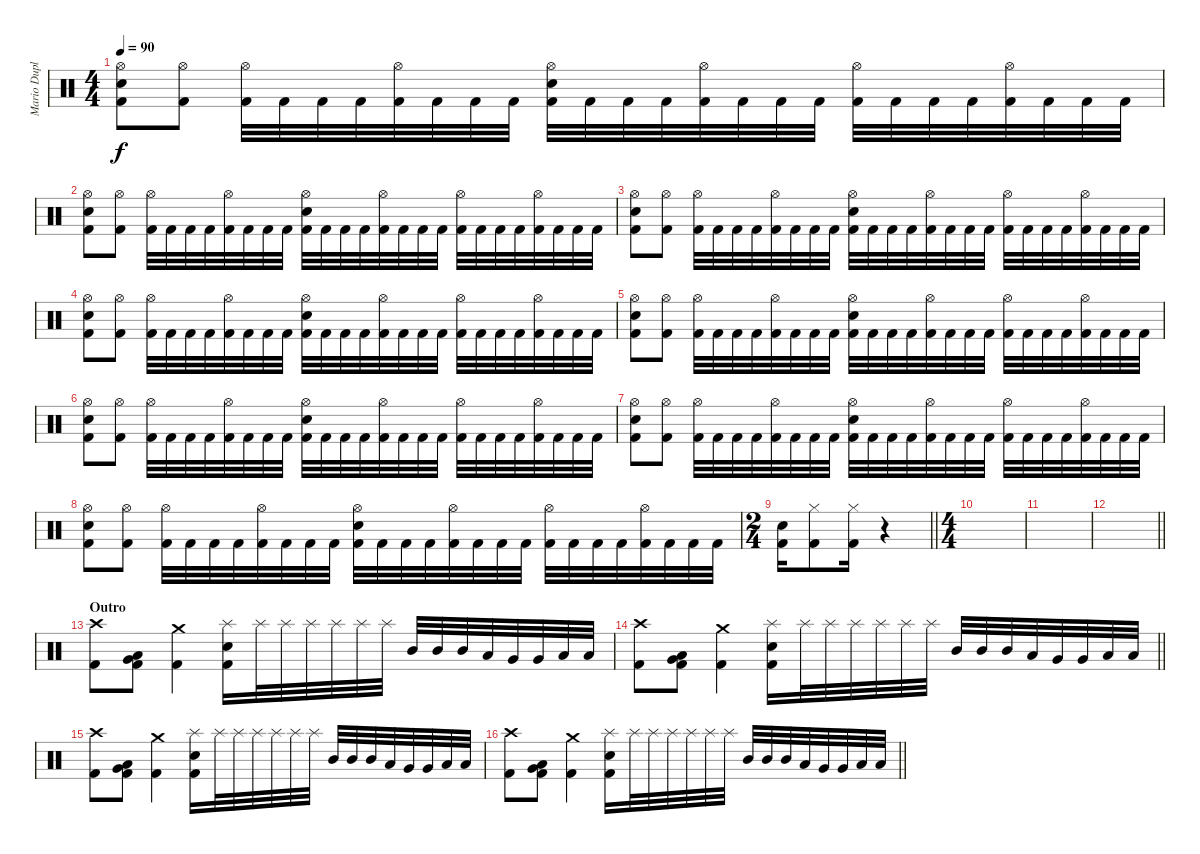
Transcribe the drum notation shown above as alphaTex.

\track ("Mario Duplantier" "Mario Dupl") {instrument percussion}
\staff {score}
\articulation defaults
\ts (4 4)
\tempo 90
\clef neutral
\ks c
("Hi-Hat (open)" "Electric Snare (hit)" "Kick (hit) 2").8{dy f} ("Hi-Hat (open)" "Kick (hit) 2").8 ("Hi-Hat (open)" "Kick (hit) 2").32 "Kick (hit) 2".32 "Kick (hit) 2".32 "Kick (hit) 2".32 ("Hi-Hat (open)" "Kick (hit) 2").32 "Kick (hit) 2".32 "Kick (hit) 2".32 "Kick (hit) 2".32 ("Hi-Hat (open)" "Electric Snare (hit)" "Kick (hit) 2").32 "Kick (hit) 2".32 "Kick (hit) 2".32 "Kick (hit) 2".32 ("Hi-Hat (open)" "Kick (hit) 2").32 "Kick (hit) 2".32 "Kick (hit) 2".32 "Kick (hit) 2".32 ("Hi-Hat (open)" "Kick (hit) 2").32 "Kick (hit) 2".32 "Kick (hit) 2".32 "Kick (hit) 2".32 ("Hi-Hat (open)" "Kick (hit) 2").32 "Kick (hit) 2".32 "Kick (hit) 2".32 "Kick (hit) 2".32 |
("Hi-Hat (open)" "Electric Snare (hit)" "Kick (hit) 2").8 ("Hi-Hat (open)" "Kick (hit) 2").8 ("Hi-Hat (open)" "Kick (hit) 2").32 "Kick (hit) 2".32 "Kick (hit) 2".32 "Kick (hit) 2".32 ("Hi-Hat (open)" "Kick (hit) 2").32 "Kick (hit) 2".32 "Kick (hit) 2".32 "Kick (hit) 2".32 ("Hi-Hat (open)" "Electric Snare (hit)" "Kick (hit) 2").32 "Kick (hit) 2".32 "Kick (hit) 2".32 "Kick (hit) 2".32 ("Hi-Hat (open)" "Kick (hit) 2").32 "Kick (hit) 2".32 "Kick (hit) 2".32 "Kick (hit) 2".32 ("Hi-Hat (open)" "Kick (hit) 2").32 "Kick (hit) 2".32 "Kick (hit) 2".32 "Kick (hit) 2".32 ("Hi-Hat (open)" "Kick (hit) 2").32 "Kick (hit) 2".32 "Kick (hit) 2".32 "Kick (hit) 2".32 |
("Hi-Hat (open)" "Electric Snare (hit)" "Kick (hit) 2").8 ("Hi-Hat (open)" "Kick (hit) 2").8 ("Hi-Hat (open)" "Kick (hit) 2").32 "Kick (hit) 2".32 "Kick (hit) 2".32 "Kick (hit) 2".32 ("Hi-Hat (open)" "Kick (hit) 2").32 "Kick (hit) 2".32 "Kick (hit) 2".32 "Kick (hit) 2".32 ("Hi-Hat (open)" "Electric Snare (hit)" "Kick (hit) 2").32 "Kick (hit) 2".32 "Kick (hit) 2".32 "Kick (hit) 2".32 ("Hi-Hat (open)" "Kick (hit) 2").32 "Kick (hit) 2".32 "Kick (hit) 2".32 "Kick (hit) 2".32 ("Hi-Hat (open)" "Kick (hit) 2").32 "Kick (hit) 2".32 "Kick (hit) 2".32 "Kick (hit) 2".32 ("Hi-Hat (open)" "Kick (hit) 2").32 "Kick (hit) 2".32 "Kick (hit) 2".32 "Kick (hit) 2".32 |
("Hi-Hat (open)" "Electric Snare (hit)" "Kick (hit) 2").8 ("Hi-Hat (open)" "Kick (hit) 2").8 ("Hi-Hat (open)" "Kick (hit) 2").32 "Kick (hit) 2".32 "Kick (hit) 2".32 "Kick (hit) 2".32 ("Hi-Hat (open)" "Kick (hit) 2").32 "Kick (hit) 2".32 "Kick (hit) 2".32 "Kick (hit) 2".32 ("Hi-Hat (open)" "Electric Snare (hit)" "Kick (hit) 2").32 "Kick (hit) 2".32 "Kick (hit) 2".32 "Kick (hit) 2".32 ("Hi-Hat (open)" "Kick (hit) 2").32 "Kick (hit) 2".32 "Kick (hit) 2".32 "Kick (hit) 2".32 ("Hi-Hat (open)" "Kick (hit) 2").32 "Kick (hit) 2".32 "Kick (hit) 2".32 "Kick (hit) 2".32 ("Hi-Hat (open)" "Kick (hit) 2").32 "Kick (hit) 2".32 "Kick (hit) 2".32 "Kick (hit) 2".32 |
("Hi-Hat (open)" "Electric Snare (hit)" "Kick (hit) 2").8 ("Hi-Hat (open)" "Kick (hit) 2").8 ("Hi-Hat (open)" "Kick (hit) 2").32 "Kick (hit) 2".32 "Kick (hit) 2".32 "Kick (hit) 2".32 ("Hi-Hat (open)" "Kick (hit) 2").32 "Kick (hit) 2".32 "Kick (hit) 2".32 "Kick (hit) 2".32 ("Hi-Hat (open)" "Electric Snare (hit)" "Kick (hit) 2").32 "Kick (hit) 2".32 "Kick (hit) 2".32 "Kick (hit) 2".32 ("Hi-Hat (open)" "Kick (hit) 2").32 "Kick (hit) 2".32 "Kick (hit) 2".32 "Kick (hit) 2".32 ("Hi-Hat (open)" "Kick (hit) 2").32 "Kick (hit) 2".32 "Kick (hit) 2".32 "Kick (hit) 2".32 ("Hi-Hat (open)" "Kick (hit) 2").32 "Kick (hit) 2".32 "Kick (hit) 2".32 "Kick (hit) 2".32 |
("Hi-Hat (open)" "Electric Snare (hit)" "Kick (hit) 2").8 ("Hi-Hat (open)" "Kick (hit) 2").8 ("Hi-Hat (open)" "Kick (hit) 2").32 "Kick (hit) 2".32 "Kick (hit) 2".32 "Kick (hit) 2".32 ("Hi-Hat (open)" "Kick (hit) 2").32 "Kick (hit) 2".32 "Kick (hit) 2".32 "Kick (hit) 2".32 ("Hi-Hat (open)" "Electric Snare (hit)" "Kick (hit) 2").32 "Kick (hit) 2".32 "Kick (hit) 2".32 "Kick (hit) 2".32 ("Hi-Hat (open)" "Kick (hit) 2").32 "Kick (hit) 2".32 "Kick (hit) 2".32 "Kick (hit) 2".32 ("Hi-Hat (open)" "Kick (hit) 2").32 "Kick (hit) 2".32 "Kick (hit) 2".32 "Kick (hit) 2".32 ("Hi-Hat (open)" "Kick (hit) 2").32 "Kick (hit) 2".32 "Kick (hit) 2".32 "Kick (hit) 2".32 |
("Hi-Hat (open)" "Electric Snare (hit)" "Kick (hit) 2").8 ("Hi-Hat (open)" "Kick (hit) 2").8 ("Hi-Hat (open)" "Kick (hit) 2").32 "Kick (hit) 2".32 "Kick (hit) 2".32 "Kick (hit) 2".32 ("Hi-Hat (open)" "Kick (hit) 2").32 "Kick (hit) 2".32 "Kick (hit) 2".32 "Kick (hit) 2".32 ("Hi-Hat (open)" "Electric Snare (hit)" "Kick (hit) 2").32 "Kick (hit) 2".32 "Kick (hit) 2".32 "Kick (hit) 2".32 ("Hi-Hat (open)" "Kick (hit) 2").32 "Kick (hit) 2".32 "Kick (hit) 2".32 "Kick (hit) 2".32 ("Hi-Hat (open)" "Kick (hit) 2").32 "Kick (hit) 2".32 "Kick (hit) 2".32 "Kick (hit) 2".32 ("Hi-Hat (open)" "Kick (hit) 2").32 "Kick (hit) 2".32 "Kick (hit) 2".32 "Kick (hit) 2".32 |
("Hi-Hat (open)" "Electric Snare (hit)" "Kick (hit) 2").8 ("Hi-Hat (open)" "Kick (hit) 2").8 ("Hi-Hat (open)" "Kick (hit) 2").32 "Kick (hit) 2".32 "Kick (hit) 2".32 "Kick (hit) 2".32 ("Hi-Hat (open)" "Kick (hit) 2").32 "Kick (hit) 2".32 "Kick (hit) 2".32 "Kick (hit) 2".32 ("Hi-Hat (open)" "Electric Snare (hit)" "Kick (hit) 2").32 "Kick (hit) 2".32 "Kick (hit) 2".32 "Kick (hit) 2".32 ("Hi-Hat (open)" "Kick (hit) 2").32 "Kick (hit) 2".32 "Kick (hit) 2".32 "Kick (hit) 2".32 ("Hi-Hat (open)" "Kick (hit) 2").32 "Kick (hit) 2".32 "Kick (hit) 2".32 "Kick (hit) 2".32 ("Hi-Hat (open)" "Kick (hit) 2").32 "Kick (hit) 2".32 "Kick (hit) 2".32 "Kick (hit) 2".32 |
\ts (2 4)
\barLineRight lightlight
("Electric Snare (hit)" "Kick (hit) 2").16 ("Hi-Hat (closed)" "Kick (hit) 2").8 ("Hi-Hat (closed)" "Kick (hit) 2").16 r.4 |
\ts (4 4)
\section ("" "")
|
|
\barLineRight lightlight
|
\section ("" "Outro")
("Crash high (hit)" "Kick (hit) 2").8 ("Very Low Tom (hit)" "Low Floor Tom (hit)" "Kick (hit) 2").8 ("Crash medium (hit)" "Kick (hit) 2").4 ("Splash (hit)" "Electric Snare (hit)" "Kick (hit) 2").16 "Splash (hit)".32 "Splash (hit)".32 "Splash (hit)".32 "Splash (hit)".32 "Splash (hit)".32 "Splash (hit)".32 "Mid Tom (hit)".32 "Mid Tom (hit)".32 "Mid Tom (hit)".32 "Low Tom (hit)".32 "Very Low Tom (hit)".32 "Very Low Tom (hit)".32 "Low Floor Tom (hit)".32 "Low Floor Tom (hit)".32 |
\barLineRight lightlight
("Crash high (hit)" "Kick (hit) 2").8 ("Very Low Tom (hit)" "Low Floor Tom (hit)" "Kick (hit) 2").8 ("Crash medium (hit)" "Kick (hit) 2").4 ("Splash (hit)" "Electric Snare (hit)" "Kick (hit) 2").16 "Splash (hit)".32 "Splash (hit)".32 "Splash (hit)".32 "Splash (hit)".32 "Splash (hit)".32 "Splash (hit)".32 "Mid Tom (hit)".32 "Mid Tom (hit)".32 "Mid Tom (hit)".32 "Low Tom (hit)".32 "Very Low Tom (hit)".32 "Very Low Tom (hit)".32 "Low Floor Tom (hit)".32 "Low Floor Tom (hit)".32 |
("Crash high (hit)" "Kick (hit) 2").8 ("Very Low Tom (hit)" "Low Floor Tom (hit)" "Kick (hit) 2").8 ("Crash medium (hit)" "Kick (hit) 2").4 ("Splash (hit)" "Electric Snare (hit)" "Kick (hit) 2").16 "Splash (hit)".32 "Splash (hit)".32 "Splash (hit)".32 "Splash (hit)".32 "Splash (hit)".32 "Splash (hit)".32 "Mid Tom (hit)".32 "Mid Tom (hit)".32 "Mid Tom (hit)".32 "Low Tom (hit)".32 "Very Low Tom (hit)".32 "Very Low Tom (hit)".32 "Low Floor Tom (hit)".32 "Low Floor Tom (hit)".32 |
\barLineRight lightlight
("Crash high (hit)" "Kick (hit) 2").8 ("Very Low Tom (hit)" "Low Floor Tom (hit)" "Kick (hit) 2").8 ("Crash medium (hit)" "Kick (hit) 2").4 ("Splash (hit)" "Electric Snare (hit)" "Kick (hit) 2").16 "Splash (hit)".32 "Splash (hit)".32 "Splash (hit)".32 "Splash (hit)".32 "Splash (hit)".32 "Splash (hit)".32 "Mid Tom (hit)".32 "Mid Tom (hit)".32 "Mid Tom (hit)".32 "Low Tom (hit)".32 "Very Low Tom (hit)".32 "Very Low Tom (hit)".32 "Low Floor Tom (hit)".32 "Low Floor Tom (hit)".32
